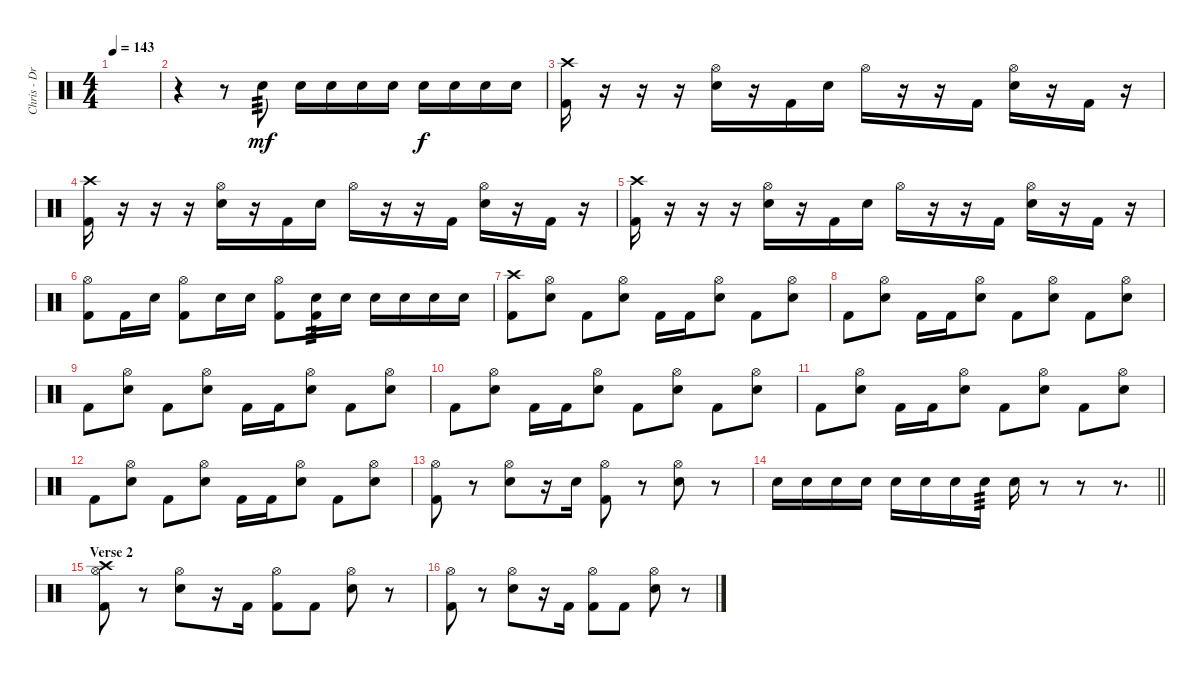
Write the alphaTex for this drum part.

\track ("Chris - Drums" "Chris - Dr") {instrument percussion}
\staff {score}
\articulation defaults
\ts (4 4)
\tempo 143
\clef neutral
\ks c
|
r.4 r.8 "Electric Snare (hit)".8{tp 3 dy mf} "Electric Snare (hit)".16 "Electric Snare (hit)".16 "Electric Snare (hit)".16 "Electric Snare (hit)".16 "Electric Snare (hit)".16{dy f} "Electric Snare (hit)".16 "Electric Snare (hit)".16 "Electric Snare (hit)".16 |
("Crash high (hit)" "Kick (hit) 2").16 r.16 r.16 r.16 ("Hi-Hat (open)" "Electric Snare (hit)").16 r.16 "Kick (hit) 2".16 "Electric Snare (hit)".16 "Hi-Hat (open)".16 r.16 r.16 "Kick (hit) 2".16 ("Hi-Hat (open)" "Electric Snare (hit)").16 r.16 "Kick (hit) 2".16 r.16 |
("Crash high (hit)" "Kick (hit) 2").16 r.16 r.16 r.16 ("Hi-Hat (open)" "Electric Snare (hit)").16 r.16 "Kick (hit) 2".16 "Electric Snare (hit)".16 "Hi-Hat (open)".16 r.16 r.16 "Kick (hit) 2".16 ("Hi-Hat (open)" "Electric Snare (hit)").16 r.16 "Kick (hit) 2".16 r.16 |
("Crash high (hit)" "Kick (hit) 2").16 r.16 r.16 r.16 ("Hi-Hat (open)" "Electric Snare (hit)").16 r.16 "Kick (hit) 2".16 "Electric Snare (hit)".16 "Hi-Hat (open)".16 r.16 r.16 "Kick (hit) 2".16 ("Hi-Hat (open)" "Electric Snare (hit)").16 r.16 "Kick (hit) 2".16 r.16 |
("Hi-Hat (open)" "Kick (hit) 2").8 "Kick (hit) 2".16 "Electric Snare (hit)".16 ("Hi-Hat (open)" "Kick (hit) 2").8 "Electric Snare (hit)".16 "Electric Snare (hit)".16 ("Hi-Hat (open)" "Kick (hit) 2").8 ("Electric Snare (hit)" "Kick (hit) 2").16{tp 3} "Electric Snare (hit)".16 "Electric Snare (hit)".16 "Electric Snare (hit)".16 "Electric Snare (hit)".16 "Electric Snare (hit)".16 |
("Crash high (hit)" "Kick (hit) 2").8 ("Hi-Hat (open)" "Electric Snare (hit)").8 "Kick (hit) 2".8 ("Hi-Hat (open)" "Electric Snare (hit)").8 "Kick (hit) 2".16 "Kick (hit) 2".16 ("Hi-Hat (open)" "Electric Snare (hit)").8 "Kick (hit) 2".8 ("Hi-Hat (open)" "Electric Snare (hit)").8 |
"Kick (hit) 2".8 ("Hi-Hat (open)" "Electric Snare (hit)").8 "Kick (hit) 2".16 "Kick (hit) 2".16 ("Hi-Hat (open)" "Electric Snare (hit)").8 "Kick (hit) 2".8 ("Hi-Hat (open)" "Electric Snare (hit)").8 "Kick (hit) 2".8 ("Hi-Hat (open)" "Electric Snare (hit)").8 |
"Kick (hit) 2".8 ("Hi-Hat (open)" "Electric Snare (hit)").8 "Kick (hit) 2".8 ("Hi-Hat (open)" "Electric Snare (hit)").8 "Kick (hit) 2".16 "Kick (hit) 2".16 ("Hi-Hat (open)" "Electric Snare (hit)").8 "Kick (hit) 2".8 ("Hi-Hat (open)" "Electric Snare (hit)").8 |
"Kick (hit) 2".8 ("Hi-Hat (open)" "Electric Snare (hit)").8 "Kick (hit) 2".16 "Kick (hit) 2".16 ("Hi-Hat (open)" "Electric Snare (hit)").8 "Kick (hit) 2".8 ("Hi-Hat (open)" "Electric Snare (hit)").8 "Kick (hit) 2".8 ("Hi-Hat (open)" "Electric Snare (hit)").8 |
"Kick (hit) 2".8 ("Hi-Hat (open)" "Electric Snare (hit)").8 "Kick (hit) 2".16 "Kick (hit) 2".16 ("Hi-Hat (open)" "Electric Snare (hit)").8 "Kick (hit) 2".8 ("Hi-Hat (open)" "Electric Snare (hit)").8 "Kick (hit) 2".8 ("Hi-Hat (open)" "Electric Snare (hit)").8 |
"Kick (hit) 2".8 ("Hi-Hat (open)" "Electric Snare (hit)").8 "Kick (hit) 2".8 ("Hi-Hat (open)" "Electric Snare (hit)").8 "Kick (hit) 2".16 "Kick (hit) 2".16 ("Hi-Hat (open)" "Electric Snare (hit)").8 "Kick (hit) 2".8 ("Hi-Hat (open)" "Electric Snare (hit)").8 |
("Hi-Hat (open)" "Kick (hit) 2").8 r.8 ("Hi-Hat (open)" "Electric Snare (hit)").8 r.16 "Electric Snare (hit)".16 ("Hi-Hat (open)" "Kick (hit) 2").8 r.8 ("Hi-Hat (open)" "Electric Snare (hit)").8 r.8 |
\barLineRight lightlight "Electric Snare (hit)".16 "Electric Snare (hit)".16 "Electric Snare (hit)".16 "Electric Snare (hit)".16 "Electric Snare (hit)".16 "Electric Snare (hit)".16 "Electric Snare (hit)".16 "Electric Snare (hit)".16{tp 3} "Electric Snare (hit)".16
r.8 r.8 r.8{d} |
\section ("" "Verse 2")
("Crash high (hit)" "Hi-Hat (open)" "Kick (hit) 2").8 r.8 ("Hi-Hat (open)" "Electric Snare (hit)").8 r.16 "Kick (hit) 2".16 ("Hi-Hat (open)" "Kick (hit) 2").8 "Kick (hit) 2".8 ("Hi-Hat (open)" "Electric Snare (hit)").8 r.8 |
("Hi-Hat (open)" "Kick (hit) 2").8 r.8 ("Hi-Hat (open)" "Electric Snare (hit)").8 r.16 "Kick (hit) 2".16 ("Hi-Hat (open)" "Kick (hit) 2").8 "Kick (hit) 2".8 ("Hi-Hat (open)" "Electric Snare (hit)").8 r.8
